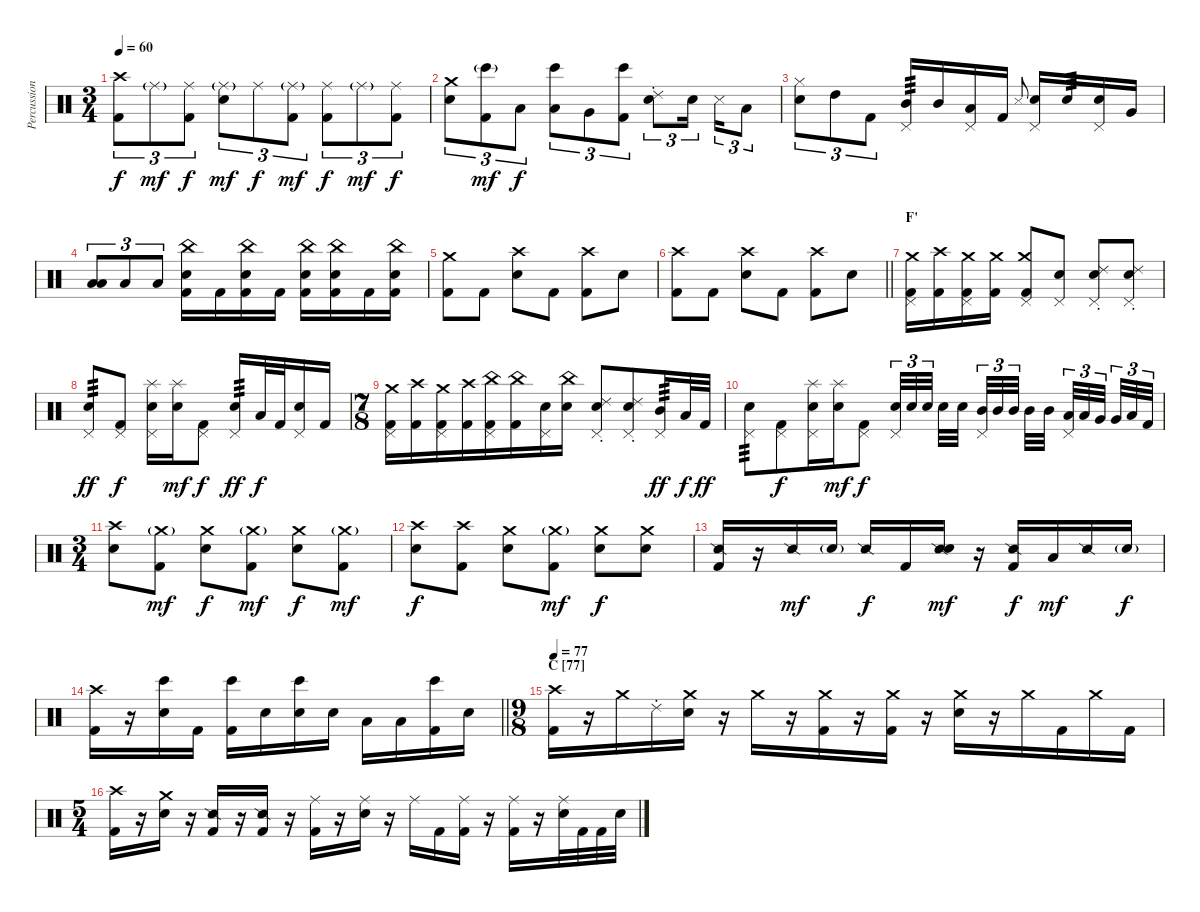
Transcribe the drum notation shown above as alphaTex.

\track ("Percussion" "Percussion") {instrument percussion}
\staff {score}
\articulation defaults
\ts (3 4)
\tempo 60
\clef neutral
\ks c
("Crash high (hit)" "Kick (hit) 2").8{tu (3 2) dy f} "Ride (middle)"{g}.8{tu (3 2) dy mf} ("Ride (middle)" "Kick (hit) 2").8{tu (3 2) dy f} ("Ride (middle)"{g} "Snare (hit) 2").8{tu (3 2) dy mf} "Ride (middle)".8{tu (3 2) dy f} ("Ride (middle)"{g} "Kick (hit) 2").8{tu (3 2) dy mf} ("Ride (middle)" "Kick (hit) 2").8{tu (3 2) dy f} "Ride (middle)"{g}.8{tu (3 2) dy mf} ("Ride (middle)" "Kick (hit) 2").8{tu (3 2) dy f} |
("Crash medium (hit)" "Snare (hit) 2").8{tu (3 2)} ("Bongo High (hit)"{g} "Kick (hit) 2").8{tu (3 2) dy mf} "Low Tom (hit)".8{tu (3 2) dy f} ("Bongo High (hit)" "Low Tom (hit)").8{tu (3 2)} "Very Low Tom (hit)".8{tu (3 2)} ("Bongo High (hit)" "Kick (hit) 2").8{tu (3 2)} ("Ride (choke) 2" "Snare (hit) 2").8{tu (3 2)} "Snare (hit) 2".16{tu (3 2) beam splitsecondary} "Metronome (hit)".16{tu (3 2)} "Low Tom (hit)".8{tu (3 2)} |
("Hi-Hat (closed)" "Snare (hit) 2").8{tu (3 2)} "High Tom (hit)".8{tu (3 2)} "Kick (hit) 2".8{tu (3 2)} ("Pedal Hi-Hat (hit)" "Mid Tom (hit)").16{tp 3} "Mid Tom (hit)".16 ("Pedal Hi-Hat (hit)" "Low Tom (hit)").16 "Kick (hit) 2".16 "Metronome (hit)".8{gr onbeat} ("Pedal Hi-Hat (hit)" "Snare (hit) 2").16 "Snare (hit) 2".16{tp 3} ("Pedal Hi-Hat (hit)" "Snare (hit) 2").16 "Very Low Tom (hit)".16 |
("Low Floor Tom (hit)" "Low Floor Tom (hit)").8{tu (3 2) bu 480} "Low Floor Tom (hit)".8{tu (3 2)} "Low Floor Tom (hit)".8{tu (3 2)} ("China (hit)" "Snare (hit) 2" "Kick (hit) 2").16 "Kick (hit) 2".16 ("China (hit)" "Snare (hit) 2" "Kick (hit) 2").16 "Kick (hit) 2".16 ("China (hit)" "Snare (hit) 2" "Kick (hit) 2").16 ("China (hit)" "Snare (hit) 2" "Kick (hit) 2").16 "Kick (hit) 2".16 ("China (hit)" "Snare (hit) 2" "Kick (hit) 2").16 |
("Crash medium (hit)" "Kick (hit) 2").8 "Kick (hit) 2".8 ("Crash high (hit)" "Snare (hit) 2").8 "Kick (hit) 2".8 ("Crash high (hit)" "Kick (hit) 2").8 "Snare (hit) 2".8 |
\barLineRight lightlight
("Crash high (hit)" "Kick (hit) 2").8 "Kick (hit) 2".8 ("Crash high (hit)" "Snare (hit) 2").8 "Kick (hit) 2".8 ("Crash high (hit)" "Kick (hit) 2").8 "Snare (hit) 2".8 |
\section ("" "F'")
("Crash medium (hit)" "Pedal Hi-Hat (hit)" "Kick (hit) 2").16 ("Crash high (hit)" "Kick (hit) 2").16 ("Crash medium (hit)" "Pedal Hi-Hat (hit)" "Kick (hit) 2").16 ("Crash medium (hit)" "Kick (hit) 2").16 ("Crash medium (hit)" "Pedal Hi-Hat (hit)" "Kick (hit) 2").8 ("Pedal Hi-Hat (hit)" "Snare (hit) 2").8 ("Ride (choke) 2" "Pedal Hi-Hat (hit)" "Snare (hit) 2").8 ("Ride (choke) 2" "Pedal Hi-Hat (hit)" "Snare (hit) 2").8 |
("Pedal Hi-Hat (hit)" "Snare (hit) 2").8{tp 3 dy ff} ("Pedal Hi-Hat (hit)" "Kick (hit) 2").8{dy f} ("Splash (hit)" "Pedal Hi-Hat (hit)" "Snare (hit) 2").16 ("Splash (hit)" "Snare (hit) 2").16{dy mf} ("Pedal Hi-Hat (hit)" "Kick (hit) 2").8{dy f} ("Pedal Hi-Hat (hit)" "Snare (hit) 2").16{tp 3 dy ff} "Low Tom (hit)".32{dy f} "Kick (hit) 2".32 ("Pedal Hi-Hat (hit)" "Snare (hit) 2").16 "Kick (hit) 2".16 |
\ts (7 8)
("Crash medium (hit)" "Pedal Hi-Hat (hit)" "Kick (hit) 2").16 ("Crash high (hit)" "Kick (hit) 2").16 ("Crash medium (hit)" "Pedal Hi-Hat (hit)" "Kick (hit) 2").16 ("Crash high (hit)" "Kick (hit) 2").16 ("China (hit)" "Pedal Hi-Hat (hit)" "Kick (hit) 2").16 ("China (hit)" "Kick (hit) 2").16 ("Pedal Hi-Hat (hit)" "Snare (hit) 2").16 ("China (hit)" "Snare (hit) 2").16 ("Ride (choke) 2" "Pedal Hi-Hat (hit)" "Snare (hit) 2").8 ("Ride (choke) 2" "Pedal Hi-Hat (hit)" "Snare (hit) 2").8 ("Pedal Hi-Hat (hit)" "Mid Tom (hit)").16{tp 3 dy ff} "Low Tom (hit)".32{dy f} "Kick (hit) 2".32{dy ff} |
("Pedal Hi-Hat (hit)" "Snare (hit) 2").8{tp 3} ("Pedal Hi-Hat (hit)" "Kick (hit) 2").8{dy f} ("Splash (hit)" "Pedal Hi-Hat (hit)" "Snare (hit) 2").16 ("Splash (hit)" "Snare (hit) 2").16{dy mf} ("Pedal Hi-Hat (hit)" "Kick (hit) 2").8{dy f} ("Pedal Hi-Hat (hit)" "Snare (hit) 2").32{tu (3 2)} "Snare (hit) 2".32{tu (3 2)} "Snare (hit) 2".32{tu (3 2) beam splitsecondary} "Snare (hit) 2".32 "Snare (hit) 2".32 ("Pedal Hi-Hat (hit)" "Mid Tom (hit)").32{tu (3 2)} "Mid Tom (hit)".32{tu (3 2)} "Mid Tom (hit)".32{tu (3 2) beam splitsecondary} "Mid Tom (hit)".32 "Mid Tom (hit)".32 ("Pedal Hi-Hat (hit)" "Low Tom (hit)").32{tu (3 2)} "Low Tom (hit)".32{tu (3 2)} "Very Low Tom (hit)".32{tu (3 2) beam splitsecondary} "Very Low Tom (hit)".32{tu (3 2)} "Low Floor Tom (hit)".32{tu (3 2)} "Kick (hit) 2".32{tu (3 2)} |
\ts (3 4)
("Crash high (hit)" "Snare (hit) 2").8 ("Crash medium (hit)"{g} "Kick (hit) 2").8{dy mf} ("Crash medium (hit)" "Snare (hit) 2").8{dy f} ("Crash medium (hit)"{g} "Kick (hit) 2").8{dy mf} ("Crash medium (hit)" "Snare (hit) 2").8{dy f} ("Crash medium (hit)"{g} "Kick (hit) 2").8{dy mf} |
("Crash high (hit)" "Snare (hit) 2").8{dy f} ("Crash high (hit)" "Kick (hit) 2").8 ("Crash medium (hit)" "Snare (hit) 2").8 ("Crash medium (hit)"{g} "Kick (hit) 2").8{dy mf} ("Crash medium (hit)" "Snare (hit) 2").8{dy f} ("Crash medium (hit)" "Snare (hit) 2").8 |
("Snare (side stick) 2" "Kick (hit) 2").16 r.16 "Snare (side stick) 2".16{dy mf} "Snare (hit) 2"{g}.16 "Snare (side stick) 2".16{dy f} "Kick (hit) 2".16 ("Snare (side stick) 2" "Snare (hit) 2").16{dy mf} r.16 ("Snare (side stick) 2" "Kick (hit) 2").16{dy f} "Low Tom (hit)".16{dy mf} "Snare (side stick) 2".16 "Snare (hit) 2"{g}.16{dy f} |
\barLineRight lightlight
("Crash high (hit)" "Kick (hit) 2").16 r.16 ("Bongo High (hit)" "Snare (hit) 2").16 "Kick (hit) 2".16 ("Bongo High (hit)" "Kick (hit) 2").16 "Snare (hit) 2".16 ("Bongo High (hit)" "Snare (hit) 2").16 "Snare (hit) 2".16 "Low Tom (hit)".16 "Low Tom (hit)".16 ("Bongo High (hit)" "Kick (hit) 2").16 "Snare (hit) 2".16 |
\ts (9 8)
\section ("" "C [77]")
\tempo 77
("Crash high (hit)" "Kick (hit) 2").16 r.16 "Crash medium (hit)".16 "Ride (choke) 2".16 ("Crash medium (hit)" "Snare (hit) 2").16 r.16 "Crash medium (hit)".16 r.16 ("Crash medium (hit)" "Kick (hit) 2").16 r.16 ("Crash medium (hit)" "Kick (hit) 2").16 r.16 ("Crash medium (hit)" "Snare (hit) 2").16 r.16 "Crash medium (hit)".16 "Kick (hit) 2".16 "Crash medium (hit)".16 "Kick (hit) 2".16 |
\ts (5 4)
("Crash high (hit)" "Kick (hit) 2").16 r.16 ("Crash medium (hit)" "Snare (hit) 2").16 r.16 ("Snare (side stick) 2" "Kick (hit) 2").16 r.16 ("Snare (side stick) 2" "Kick (hit) 2").16 r.16 ("Ride (middle)" "Kick (hit) 2").16 r.16 ("Ride (middle)" "Snare (hit) 2").16 r.16 "Ride (middle)".16 "Kick (hit) 2".16 ("Ride (middle)" "Kick (hit) 2").16 r.16 ("Ride (middle)" "Kick (hit) 2").16 r.16 ("Ride (middle)" "Snare (hit) 2").32 "Kick (hit) 2".32 "Kick (hit) 2".32 "Snare (hit) 2".32
